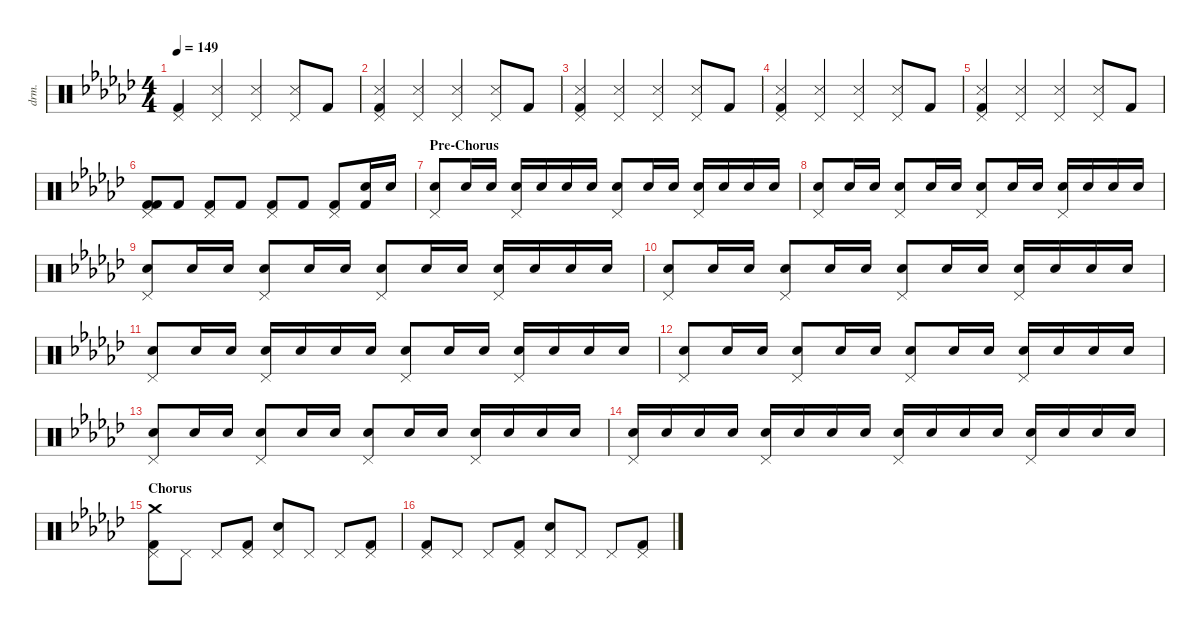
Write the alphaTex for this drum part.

\defaultSystemsLayout 4
\hideDynamics
\bracketExtendMode nobrackets
\otherSystemsTrackNameOrientation horizontal
\track ("Drums" "drm.") {defaultSystemsLayout 4 instrument percussion}
\staff {score}
\articulation defaults
\ts (4 4)
\tempo 149
\clef neutral
\ks gb
("Pedal Hi-Hat (hit)"{acc forcenatural} "Kick (hit) 2"{acc forcenatural}).4{dy f beam Up} ("Pedal Hi-Hat (hit)"{acc forcenatural} "Snare (side stick) 3"{acc forcenatural}).4{beam Up} ("Pedal Hi-Hat (hit)"{acc forcenatural} "Snare (side stick) 3"{acc forcenatural}).4{beam Up} ("Pedal Hi-Hat (hit)"{acc forcenatural} "Snare (side stick) 3"{acc forcenatural}).8{beam Up} "Kick (hit) 2"{acc forcenatural}.8{beam Up} |
("Pedal Hi-Hat (hit)"{acc forcenatural} "Kick (hit) 2"{acc forcenatural} "Snare (side stick) 3"{acc forcenatural}).4{beam Up} ("Pedal Hi-Hat (hit)"{acc forcenatural} "Snare (side stick) 3"{acc forcenatural}).4{beam Up} ("Pedal Hi-Hat (hit)"{acc forcenatural} "Snare (side stick) 3"{acc forcenatural}).4{beam Up} ("Pedal Hi-Hat (hit)"{acc forcenatural} "Snare (side stick) 3"{acc forcenatural}).8{beam Up} "Kick (hit) 2"{acc forcenatural}.8{beam Up} |
("Pedal Hi-Hat (hit)"{acc forcenatural} "Kick (hit) 2"{acc forcenatural} "Snare (side stick) 3"{acc forcenatural}).4{beam Up} ("Pedal Hi-Hat (hit)"{acc forcenatural} "Snare (side stick) 3"{acc forcenatural}).4{beam Up} ("Pedal Hi-Hat (hit)"{acc forcenatural} "Snare (side stick) 3"{acc forcenatural}).4{beam Up} ("Pedal Hi-Hat (hit)"{acc forcenatural} "Snare (side stick) 3"{acc forcenatural}).8{beam Up} "Kick (hit) 2"{acc forcenatural}.8{beam Up} |
("Pedal Hi-Hat (hit)"{acc forcenatural} "Kick (hit) 2"{acc forcenatural} "Snare (side stick) 3"{acc forcenatural}).4{beam Up} ("Pedal Hi-Hat (hit)"{acc forcenatural} "Snare (side stick) 3"{acc forcenatural}).4{beam Up} ("Pedal Hi-Hat (hit)"{acc forcenatural} "Snare (side stick) 3"{acc forcenatural}).4{beam Up} ("Pedal Hi-Hat (hit)"{acc forcenatural} "Snare (side stick) 3"{acc forcenatural}).8{beam Up} "Kick (hit) 2"{acc forcenatural}.8{beam Up} |
("Pedal Hi-Hat (hit)"{acc forcenatural} "Kick (hit) 2"{acc forcenatural} "Snare (side stick) 3"{acc forcenatural}).4{beam Up} ("Pedal Hi-Hat (hit)"{acc forcenatural} "Snare (side stick) 3"{acc forcenatural}).4{beam Up} ("Pedal Hi-Hat (hit)"{acc forcenatural} "Snare (side stick) 3"{acc forcenatural}).4{beam Up} ("Pedal Hi-Hat (hit)"{acc forcenatural} "Snare (side stick) 3"{acc forcenatural}).8{beam Up} "Kick (hit) 2"{acc forcenatural}.8{beam Up} |
("Pedal Hi-Hat (hit)"{acc forcenatural} "Kick (hit) 2"{acc forcenatural} "Kick (hit) 2"{acc forcenatural}).8{beam Up} "Kick (hit) 2"{acc forcenatural}.8{dy mf beam Up} ("Pedal Hi-Hat (hit)"{acc forcenatural} "Kick (hit) 2"{acc forcenatural}).8{dy f beam Up} "Kick (hit) 2"{acc forcenatural}.8{beam Up} ("Pedal Hi-Hat (hit)"{acc forcenatural} "Kick (hit) 2"{acc forcenatural}).8{beam Up} "Kick (hit) 2"{acc forcenatural}.8{dy ff beam Up} ("Pedal Hi-Hat (hit)"{acc forcenatural} "Kick (hit) 2"{acc forcenatural}).8{dy f beam Up} ("Kick (hit) 2"{acc forcenatural} "Snare (hit) 2"{acc forcenatural}).16{dy fff beam Up} "Snare (hit) 2"{acc forcenatural}.16{dy mf beam Up} |
\section ("" "Pre-Chorus")
("Pedal Hi-Hat (hit)"{acc forcenatural} "Snare (hit) 2"{acc forcenatural}).8{dy f beam Up} "Snare (hit) 2"{acc forcenatural}.16{dy mf beam Up} "Snare (hit) 2"{acc forcenatural}.16{beam Up} ("Pedal Hi-Hat (hit)"{acc forcenatural} "Snare (hit) 2"{acc forcenatural}).16{dy f beam Up} "Snare (hit) 2"{acc forcenatural}.16{dy mf beam Up} "Snare (hit) 2"{acc forcenatural}.16{beam Up} "Snare (hit) 2"{acc forcenatural}.16{beam Up} ("Pedal Hi-Hat (hit)"{acc forcenatural} "Snare (hit) 2"{acc forcenatural}).8{dy f beam Up} "Snare (hit) 2"{acc forcenatural}.16{dy mf beam Up} "Snare (hit) 2"{acc forcenatural}.16{beam Up} ("Pedal Hi-Hat (hit)"{acc forcenatural} "Snare (hit) 2"{acc forcenatural}).16{dy f beam Up} "Snare (hit) 2"{acc forcenatural}.16{dy mf beam Up} "Snare (hit) 2"{acc forcenatural}.16{beam Up} "Snare (hit) 2"{acc forcenatural}.16{beam Up} |
("Pedal Hi-Hat (hit)"{acc forcenatural} "Snare (hit) 2"{acc forcenatural}).8{dy f beam Up} "Snare (hit) 2"{acc forcenatural}.16{dy mf beam Up} "Snare (hit) 2"{acc forcenatural}.16{beam Up} ("Pedal Hi-Hat (hit)"{acc forcenatural} "Snare (hit) 2"{acc forcenatural}).8{dy f beam Up} "Snare (hit) 2"{acc forcenatural}.16{dy mf beam Up} "Snare (hit) 2"{acc forcenatural}.16{beam Up} ("Pedal Hi-Hat (hit)"{acc forcenatural} "Snare (hit) 2"{acc forcenatural}).8{dy f beam Up} "Snare (hit) 2"{acc forcenatural}.16{dy mf beam Up} "Snare (hit) 2"{acc forcenatural}.16{beam Up} ("Pedal Hi-Hat (hit)"{acc forcenatural} "Snare (hit) 2"{acc forcenatural}).16{dy f beam Up} "Snare (hit) 2"{acc forcenatural}.16{dy mf beam Up} "Snare (hit) 2"{acc forcenatural}.16{beam Up} "Snare (hit) 2"{acc forcenatural}.16{beam Up} |
("Pedal Hi-Hat (hit)"{acc forcenatural} "Snare (hit) 2"{acc forcenatural}).8{dy f beam Up} "Snare (hit) 2"{acc forcenatural}.16{dy mf beam Up} "Snare (hit) 2"{acc forcenatural}.16{beam Up} ("Pedal Hi-Hat (hit)"{acc forcenatural} "Snare (hit) 2"{acc forcenatural}).8{dy f beam Up} "Snare (hit) 2"{acc forcenatural}.16{dy mf beam Up} "Snare (hit) 2"{acc forcenatural}.16{beam Up} ("Pedal Hi-Hat (hit)"{acc forcenatural} "Snare (hit) 2"{acc forcenatural}).8{dy f beam Up} "Snare (hit) 2"{acc forcenatural}.16{dy mf beam Up} "Snare (hit) 2"{acc forcenatural}.16{beam Up} ("Pedal Hi-Hat (hit)"{acc forcenatural} "Snare (hit) 2"{acc forcenatural}).16{dy f beam Up} "Snare (hit) 2"{acc forcenatural}.16{dy mf beam Up} "Snare (hit) 2"{acc forcenatural}.16{beam Up} "Snare (hit) 2"{acc forcenatural}.16{beam Up} |
("Pedal Hi-Hat (hit)"{acc forcenatural} "Snare (hit) 2"{acc forcenatural}).8{dy f beam Up} "Snare (hit) 2"{acc forcenatural}.16{dy mf beam Up} "Snare (hit) 2"{acc forcenatural}.16{beam Up} ("Pedal Hi-Hat (hit)"{acc forcenatural} "Snare (hit) 2"{acc forcenatural}).8{dy f beam Up} "Snare (hit) 2"{acc forcenatural}.16{dy mf beam Up} "Snare (hit) 2"{acc forcenatural}.16{beam Up} ("Pedal Hi-Hat (hit)"{acc forcenatural} "Snare (hit) 2"{acc forcenatural}).8{dy f beam Up} "Snare (hit) 2"{acc forcenatural}.16{dy mf beam Up} "Snare (hit) 2"{acc forcenatural}.16{beam Up} ("Pedal Hi-Hat (hit)"{acc forcenatural} "Snare (hit) 2"{acc forcenatural}).16{dy f beam Up} "Snare (hit) 2"{acc forcenatural}.16{dy mf beam Up} "Snare (hit) 2"{acc forcenatural}.16{beam Up} "Snare (hit) 2"{acc forcenatural}.16{beam Up} |
("Pedal Hi-Hat (hit)"{acc forcenatural} "Snare (hit) 2"{acc forcenatural}).8{dy f beam Up} "Snare (hit) 2"{acc forcenatural}.16{dy mf beam Up} "Snare (hit) 2"{acc forcenatural}.16{beam Up} ("Pedal Hi-Hat (hit)"{acc forcenatural} "Snare (hit) 2"{acc forcenatural}).16{dy f beam Up} "Snare (hit) 2"{acc forcenatural}.16{dy mf beam Up} "Snare (hit) 2"{acc forcenatural}.16{beam Up} "Snare (hit) 2"{acc forcenatural}.16{beam Up} ("Pedal Hi-Hat (hit)"{acc forcenatural} "Snare (hit) 2"{acc forcenatural}).8{dy f beam Up} "Snare (hit) 2"{acc forcenatural}.16{dy mf beam Up} "Snare (hit) 2"{acc forcenatural}.16{beam Up} ("Pedal Hi-Hat (hit)"{acc forcenatural} "Snare (hit) 2"{acc forcenatural}).16{dy f beam Up} "Snare (hit) 2"{acc forcenatural}.16{dy mf beam Up} "Snare (hit) 2"{acc forcenatural}.16{beam Up} "Snare (hit) 2"{acc forcenatural}.16{beam Up} |
("Pedal Hi-Hat (hit)"{acc forcenatural} "Snare (hit) 2"{acc forcenatural}).8{dy f beam Up} "Snare (hit) 2"{acc forcenatural}.16{dy mf beam Up} "Snare (hit) 2"{acc forcenatural}.16{beam Up} ("Pedal Hi-Hat (hit)"{acc forcenatural} "Snare (hit) 2"{acc forcenatural}).8{dy f beam Up} "Snare (hit) 2"{acc forcenatural}.16{dy mf beam Up} "Snare (hit) 2"{acc forcenatural}.16{beam Up} ("Pedal Hi-Hat (hit)"{acc forcenatural} "Snare (hit) 2"{acc forcenatural}).8{dy f beam Up} "Snare (hit) 2"{acc forcenatural}.16{dy mf beam Up} "Snare (hit) 2"{acc forcenatural}.16{beam Up} ("Pedal Hi-Hat (hit)"{acc forcenatural} "Snare (hit) 2"{acc forcenatural}).16{dy f beam Up} "Snare (hit) 2"{acc forcenatural}.16{dy mf beam Up} "Snare (hit) 2"{acc forcenatural}.16{beam Up} "Snare (hit) 2"{acc forcenatural}.16{beam Up} |
("Pedal Hi-Hat (hit)"{acc forcenatural} "Snare (hit) 2"{acc forcenatural}).8{dy f beam Up} "Snare (hit) 2"{acc forcenatural}.16{dy mf beam Up} "Snare (hit) 2"{acc forcenatural}.16{beam Up} ("Pedal Hi-Hat (hit)"{acc forcenatural} "Snare (hit) 2"{acc forcenatural}).8{dy f beam Up} "Snare (hit) 2"{acc forcenatural}.16{dy mf beam Up} "Snare (hit) 2"{acc forcenatural}.16{beam Up} ("Pedal Hi-Hat (hit)"{acc forcenatural} "Snare (hit) 2"{acc forcenatural}).8{dy f beam Up} "Snare (hit) 2"{acc forcenatural}.16{dy mf beam Up} "Snare (hit) 2"{acc forcenatural}.16{beam Up} ("Pedal Hi-Hat (hit)"{acc forcenatural} "Snare (hit) 2"{acc forcenatural}).16{dy f beam Up} "Snare (hit) 2"{acc forcenatural}.16{dy mf beam Up} "Snare (hit) 2"{acc forcenatural}.16{beam Up} "Snare (hit) 2"{acc forcenatural}.16{beam Up} |
("Pedal Hi-Hat (hit)"{acc forcenatural} "Snare (hit) 2"{acc forcenatural}).16{dy f beam Up} "Snare (hit) 2"{acc forcenatural}.16{dy fff beam Up} "Snare (hit) 2"{acc forcenatural}.16{dy mp beam Up} "Snare (hit) 2"{acc forcenatural}.16{beam Up} ("Pedal Hi-Hat (hit)"{acc forcenatural} "Snare (hit) 2"{acc forcenatural}).16{dy f beam Up} "Snare (hit) 2"{acc forcenatural}.16{dy mf beam Up} "Snare (hit) 2"{acc forcenatural}.16{beam Up} "Snare (hit) 2"{acc forcenatural}.16{beam Up} ("Pedal Hi-Hat (hit)"{acc forcenatural} "Snare (hit) 2"{acc forcenatural}).16{dy f beam Up} "Snare (hit) 2"{acc forcenatural}.16{beam Up} "Snare (hit) 2"{acc forcenatural}.16{beam Up} "Snare (hit) 2"{acc forcenatural}.16{beam Up} ("Pedal Hi-Hat (hit)"{acc forcenatural} "Snare (hit) 2"{acc forcenatural}).16{beam Up} "Snare (hit) 2"{acc forcenatural}.16{dy ff beam Up} "Snare (hit) 2"{acc forcenatural}.16{beam Up} "Snare (hit) 2"{acc forcenatural}.16{dy fff beam Up} |
\section ("" "Chorus")
("Pedal Hi-Hat (hit)"{acc forcenatural} "Kick (hit) 2"{acc forcenatural} "Crash medium (hit)"{acc forcenatural}).8{dy f beam Down} "Pedal Hi-Hat (hit)"{acc forcenatural}.8{dy mp beam Down} "Pedal Hi-Hat (hit)"{acc forcenatural}.8{dy f beam Up} ("Pedal Hi-Hat (hit)"{acc forcenatural} "Kick (hit) 2"{acc forcenatural}).8{dy mp beam Up} ("Pedal Hi-Hat (hit)"{acc forcenatural} "Snare (hit) 2"{acc forcenatural}).8{dy f beam Up} "Pedal Hi-Hat (hit)"{acc forcenatural}.8{dy mp beam Up} "Pedal Hi-Hat (hit)"{acc forcenatural}.8{dy f beam Up} ("Pedal Hi-Hat (hit)"{acc forcenatural} "Kick (hit) 2"{acc forcenatural}).8{dy mp beam Up} |
("Pedal Hi-Hat (hit)"{acc forcenatural} "Kick (hit) 2"{acc forcenatural}).8{dy f beam Up} "Pedal Hi-Hat (hit)"{acc forcenatural}.8{dy mp beam Up} "Pedal Hi-Hat (hit)"{acc forcenatural}.8{dy f beam Up} ("Pedal Hi-Hat (hit)"{acc forcenatural} "Kick (hit) 2"{acc forcenatural}).8{dy mp beam Up} ("Pedal Hi-Hat (hit)"{acc forcenatural} "Snare (hit) 2"{acc forcenatural}).8{dy f beam Up} "Pedal Hi-Hat (hit)"{acc forcenatural}.8{dy mp beam Up} "Pedal Hi-Hat (hit)"{acc forcenatural}.8{dy f beam Up} ("Pedal Hi-Hat (hit)"{acc forcenatural} "Kick (hit) 2"{acc forcenatural}).8{dy mp beam Up}
